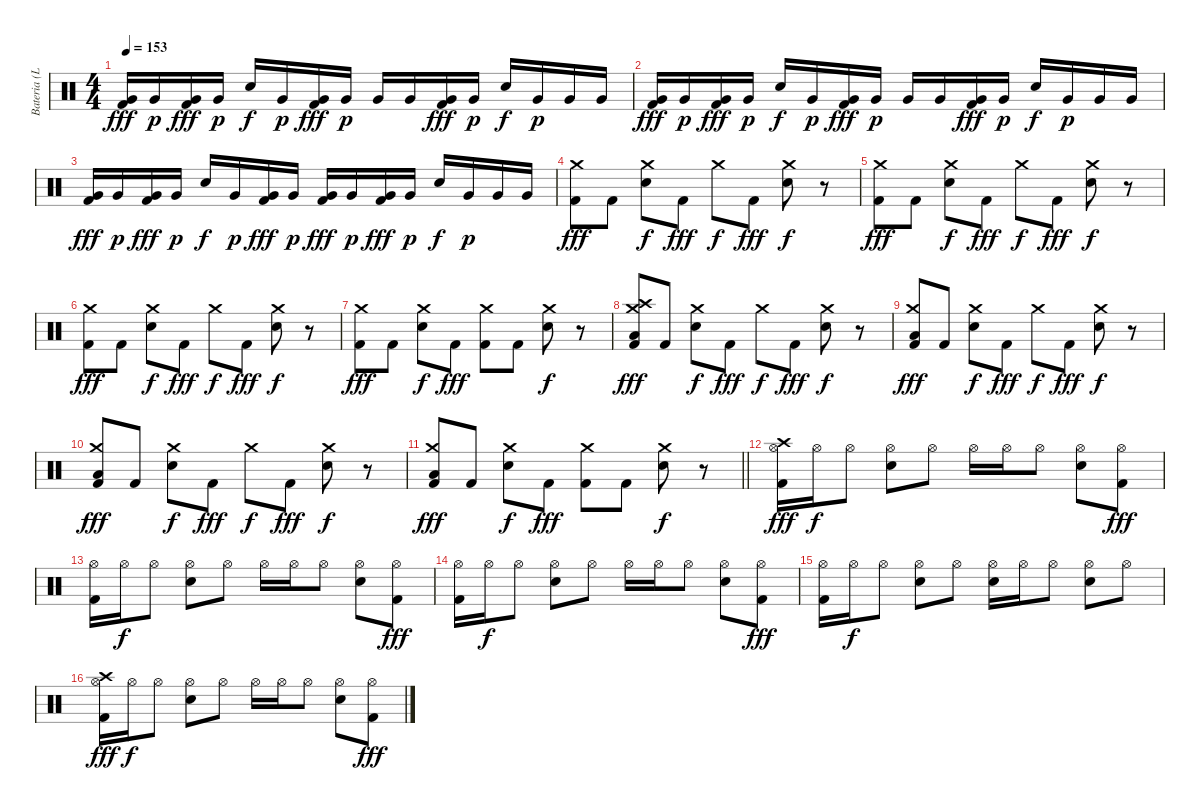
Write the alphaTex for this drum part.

\track ("Bateria (Lars)" "Bateria (L") {instrument percussion}
\staff {score}
\articulation defaults
\ts (4 4)
\tempo 153
\clef neutral
\ks c
("Very Low Tom (hit)" "Kick (hit) 2").16{dy fff} "Very Low Tom (hit)".16{dy p} ("Very Low Tom (hit)" "Kick (hit) 2").16{dy fff} "Very Low Tom (hit)".16{dy p} "Electric Snare (hit)".16{dy f} "Very Low Tom (hit)".16{dy p} ("Very Low Tom (hit)" "Kick (hit) 2").16{dy fff} "Very Low Tom (hit)".16{dy p} "Very Low Tom (hit)".16 "Very Low Tom (hit)".16 ("Very Low Tom (hit)" "Kick (hit) 2").16{dy fff} "Very Low Tom (hit)".16{dy p} "Electric Snare (hit)".16{dy f} "Very Low Tom (hit)".16{dy p} "Very Low Tom (hit)".16 "Very Low Tom (hit)".16 |
("Very Low Tom (hit)" "Kick (hit) 2").16{dy fff} "Very Low Tom (hit)".16{dy p} ("Very Low Tom (hit)" "Kick (hit) 2").16{dy fff} "Very Low Tom (hit)".16{dy p} "Electric Snare (hit)".16{dy f} "Very Low Tom (hit)".16{dy p} ("Very Low Tom (hit)" "Kick (hit) 2").16{dy fff} "Very Low Tom (hit)".16{dy p} "Very Low Tom (hit)".16 "Very Low Tom (hit)".16 ("Very Low Tom (hit)" "Kick (hit) 2").16{dy fff} "Very Low Tom (hit)".16{dy p} "Electric Snare (hit)".16{dy f} "Very Low Tom (hit)".16{dy p} "Very Low Tom (hit)".16 "Very Low Tom (hit)".16 |
("Very Low Tom (hit)" "Kick (hit) 2").16{dy fff} "Very Low Tom (hit)".16{dy p} ("Very Low Tom (hit)" "Kick (hit) 2").16{dy fff} "Very Low Tom (hit)".16{dy p} "Electric Snare (hit)".16{dy f} "Very Low Tom (hit)".16{dy p} ("Very Low Tom (hit)" "Kick (hit) 2").16{dy fff} "Very Low Tom (hit)".16{dy p} ("Very Low Tom (hit)" "Kick (hit) 2").16{dy fff} "Very Low Tom (hit)".16{dy p} ("Very Low Tom (hit)" "Kick (hit) 2").16{dy fff} "Very Low Tom (hit)".16{dy p} "Electric Snare (hit)".16{dy f} "Very Low Tom (hit)".16{dy p} "Very Low Tom (hit)".16 "Very Low Tom (hit)".16 |
("Crash medium (hit)" "Kick (hit) 2").8{dy fff} "Kick (hit) 2".8 ("Crash medium (hit)" "Electric Snare (hit)").8{dy f} "Kick (hit) 2".8{dy fff} "Crash medium (hit)".8{dy f} "Kick (hit) 2".8{dy fff} ("Crash medium (hit)" "Electric Snare (hit)").8{dy f} r.8 |
("Crash medium (hit)" "Kick (hit) 2").8{dy fff} "Kick (hit) 2".8 ("Crash medium (hit)" "Electric Snare (hit)").8{dy f} "Kick (hit) 2".8{dy fff} "Crash medium (hit)".8{dy f} "Kick (hit) 2".8{dy fff} ("Crash medium (hit)" "Electric Snare (hit)").8{dy f} r.8 |
("Crash medium (hit)" "Kick (hit) 2").8{dy fff} "Kick (hit) 2".8 ("Crash medium (hit)" "Electric Snare (hit)").8{dy f} "Kick (hit) 2".8{dy fff} "Crash medium (hit)".8{dy f} "Kick (hit) 2".8{dy fff} ("Crash medium (hit)" "Electric Snare (hit)").8{dy f} r.8 |
("Crash medium (hit)" "Kick (hit) 2").8{dy fff} "Kick (hit) 2".8 ("Crash medium (hit)" "Electric Snare (hit)").8{dy f} "Kick (hit) 2".8{dy fff} ("Crash medium (hit)" "Kick (hit) 2").8 "Kick (hit) 2".8 ("Crash medium (hit)" "Electric Snare (hit)").8{dy f} r.8 |
("Crash medium (hit)" "Crash high (hit)" "Low Floor Tom (hit)" "Kick (hit) 2").8{dy fff} "Kick (hit) 2".8 ("Crash medium (hit)" "Electric Snare (hit)").8{dy f} "Kick (hit) 2".8{dy fff} "Crash medium (hit)".8{dy f} "Kick (hit) 2".8{dy fff} ("Crash medium (hit)" "Electric Snare (hit)").8{dy f} r.8 |
("Crash medium (hit)" "Low Floor Tom (hit)" "Kick (hit) 2").8{dy fff} "Kick (hit) 2".8 ("Crash medium (hit)" "Electric Snare (hit)").8{dy f} "Kick (hit) 2".8{dy fff} "Crash medium (hit)".8{dy f} "Kick (hit) 2".8{dy fff} ("Crash medium (hit)" "Electric Snare (hit)").8{dy f} r.8 |
("Crash medium (hit)" "Low Floor Tom (hit)" "Kick (hit) 2").8{dy fff} "Kick (hit) 2".8 ("Crash medium (hit)" "Electric Snare (hit)").8{dy f} "Kick (hit) 2".8{dy fff} "Crash medium (hit)".8{dy f} "Kick (hit) 2".8{dy fff} ("Crash medium (hit)" "Electric Snare (hit)").8{dy f} r.8 |
\barLineRight lightlight
("Crash medium (hit)" "Low Floor Tom (hit)" "Kick (hit) 2").8{dy fff} "Kick (hit) 2".8 ("Crash medium (hit)" "Electric Snare (hit)").8{dy f} "Kick (hit) 2".8{dy fff} ("Crash medium (hit)" "Kick (hit) 2").8 "Kick (hit) 2".8 ("Crash medium (hit)" "Electric Snare (hit)").8{dy f} r.8 |
("Crash high (hit)" "Hi-Hat (open)" "Kick (hit) 2").16{dy fff} "Hi-Hat (open)".16{dy f} "Hi-Hat (open)".8 ("Hi-Hat (open)" "Electric Snare (hit)").8 "Hi-Hat (open)".8 "Hi-Hat (open)".16 "Hi-Hat (open)".16 "Hi-Hat (open)".8 ("Hi-Hat (open)" "Electric Snare (hit)").8 ("Hi-Hat (open)" "Kick (hit) 2").8{dy fff} |
("Hi-Hat (open)" "Kick (hit) 2").16 "Hi-Hat (open)".16{dy f} "Hi-Hat (open)".8 ("Hi-Hat (open)" "Electric Snare (hit)").8 "Hi-Hat (open)".8 "Hi-Hat (open)".16 "Hi-Hat (open)".16 "Hi-Hat (open)".8 ("Hi-Hat (open)" "Electric Snare (hit)").8 ("Hi-Hat (open)" "Kick (hit) 2").8{dy fff} |
("Hi-Hat (open)" "Kick (hit) 2").16 "Hi-Hat (open)".16{dy f} "Hi-Hat (open)".8 ("Hi-Hat (open)" "Electric Snare (hit)").8 "Hi-Hat (open)".8 "Hi-Hat (open)".16 "Hi-Hat (open)".16 "Hi-Hat (open)".8 ("Hi-Hat (open)" "Electric Snare (hit)").8 ("Hi-Hat (open)" "Kick (hit) 2").8{dy fff} |
("Hi-Hat (open)" "Kick (hit) 2").16 "Hi-Hat (open)".16{dy f} "Hi-Hat (open)".8 ("Hi-Hat (open)" "Electric Snare (hit)").8 "Hi-Hat (open)".8 ("Hi-Hat (open)" "Electric Snare (hit)").16 "Hi-Hat (open)".16 "Hi-Hat (open)".8 ("Hi-Hat (open)" "Electric Snare (hit)").8 "Hi-Hat (open)".8 |
("Crash high (hit)" "Hi-Hat (open)" "Kick (hit) 2").16{dy fff} "Hi-Hat (open)".16{dy f} "Hi-Hat (open)".8 ("Hi-Hat (open)" "Electric Snare (hit)").8 "Hi-Hat (open)".8 "Hi-Hat (open)".16 "Hi-Hat (open)".16 "Hi-Hat (open)".8 ("Hi-Hat (open)" "Electric Snare (hit)").8 ("Hi-Hat (open)" "Kick (hit) 2").8{dy fff}
